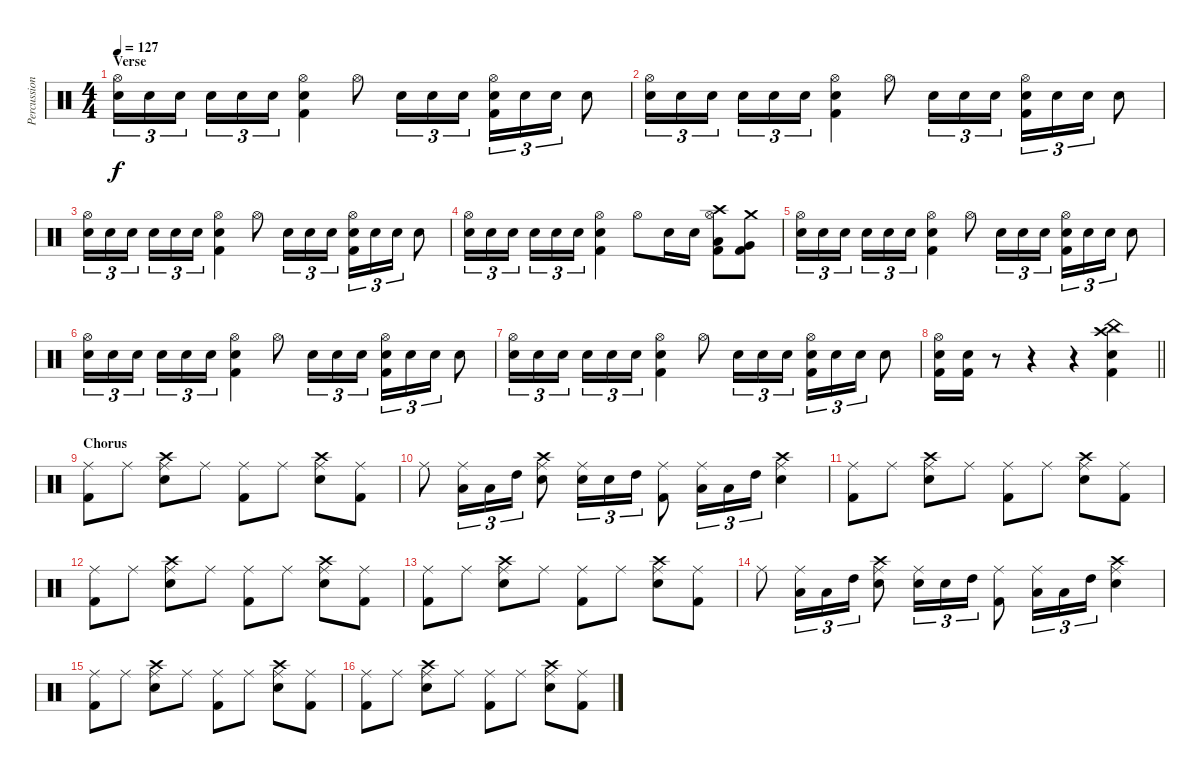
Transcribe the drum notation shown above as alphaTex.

\track ("Percussion" "Percussion") {instrument percussion}
\staff {score}
\articulation defaults
\ts (4 4)
\section ("" "Verse")
\tempo 127
\clef neutral
\ks c
("Hi-Hat (open)" "Snare (hit) 2").16{tu (3 2) dy f} "Snare (hit) 2".16{tu (3 2)} "Snare (hit) 2".16{tu (3 2) beam splitsecondary} "Snare (hit) 2".16{tu (3 2)} "Snare (hit) 2".16{tu (3 2)} "Snare (hit) 2".16{tu (3 2)} ("Hi-Hat (open)" "Snare (hit) 2" "Kick (hit) 2").4 "Hi-Hat (open)".8 "Snare (hit) 2".16{tu (3 2)} "Snare (hit) 2".16{tu (3 2)} "Snare (hit) 2".16{tu (3 2)} ("Hi-Hat (open)" "Snare (hit) 2" "Kick (hit) 2").16{tu (3 2)} "Snare (hit) 2".16{tu (3 2)} "Snare (hit) 2".16{tu (3 2)} "Snare (hit) 2".8 |
("Hi-Hat (open)" "Snare (hit) 2").16{tu (3 2)} "Snare (hit) 2".16{tu (3 2)} "Snare (hit) 2".16{tu (3 2) beam splitsecondary} "Snare (hit) 2".16{tu (3 2)} "Snare (hit) 2".16{tu (3 2)} "Snare (hit) 2".16{tu (3 2)} ("Hi-Hat (open)" "Snare (hit) 2" "Kick (hit) 2").4 "Hi-Hat (open)".8 "Snare (hit) 2".16{tu (3 2)} "Snare (hit) 2".16{tu (3 2)} "Snare (hit) 2".16{tu (3 2)} ("Hi-Hat (open)" "Snare (hit) 2" "Kick (hit) 2").16{tu (3 2)} "Snare (hit) 2".16{tu (3 2)} "Snare (hit) 2".16{tu (3 2)} "Snare (hit) 2".8 |
("Hi-Hat (open)" "Snare (hit) 2").16{tu (3 2)} "Snare (hit) 2".16{tu (3 2)} "Snare (hit) 2".16{tu (3 2) beam splitsecondary} "Snare (hit) 2".16{tu (3 2)} "Snare (hit) 2".16{tu (3 2)} "Snare (hit) 2".16{tu (3 2)} ("Hi-Hat (open)" "Snare (hit) 2" "Kick (hit) 2").4 "Hi-Hat (open)".8 "Snare (hit) 2".16{tu (3 2)} "Snare (hit) 2".16{tu (3 2)} "Snare (hit) 2".16{tu (3 2)} ("Hi-Hat (open)" "Snare (hit) 2" "Kick (hit) 2").16{tu (3 2)} "Snare (hit) 2".16{tu (3 2)} "Snare (hit) 2".16{tu (3 2)} "Snare (hit) 2".8 |
("Hi-Hat (open)" "Snare (hit) 2").16{tu (3 2)} "Snare (hit) 2".16{tu (3 2)} "Snare (hit) 2".16{tu (3 2) beam splitsecondary} "Snare (hit) 2".16{tu (3 2)} "Snare (hit) 2".16{tu (3 2)} "Snare (hit) 2".16{tu (3 2)} ("Hi-Hat (open)" "Snare (hit) 2" "Kick (hit) 2").4 "Hi-Hat (open)".8 "Snare (hit) 2".16 "Snare (hit) 2".16 ("Crash high (hit)" "Hi-Hat (open)" "Low Tom (hit)" "Kick (hit) 2").8 ("Crash medium (hit)" "Very Low Tom (hit)" "Kick (hit) 2").8 |
("Hi-Hat (open)" "Snare (hit) 2").16{tu (3 2)} "Snare (hit) 2".16{tu (3 2)} "Snare (hit) 2".16{tu (3 2) beam splitsecondary} "Snare (hit) 2".16{tu (3 2)} "Snare (hit) 2".16{tu (3 2)} "Snare (hit) 2".16{tu (3 2)} ("Hi-Hat (open)" "Snare (hit) 2" "Kick (hit) 2").4 "Hi-Hat (open)".8 "Snare (hit) 2".16{tu (3 2)} "Snare (hit) 2".16{tu (3 2)} "Snare (hit) 2".16{tu (3 2)} ("Hi-Hat (open)" "Snare (hit) 2" "Kick (hit) 2").16{tu (3 2)} "Snare (hit) 2".16{tu (3 2)} "Snare (hit) 2".16{tu (3 2)} "Snare (hit) 2".8 |
("Hi-Hat (open)" "Snare (hit) 2").16{tu (3 2)} "Snare (hit) 2".16{tu (3 2)} "Snare (hit) 2".16{tu (3 2) beam splitsecondary} "Snare (hit) 2".16{tu (3 2)} "Snare (hit) 2".16{tu (3 2)} "Snare (hit) 2".16{tu (3 2)} ("Hi-Hat (open)" "Snare (hit) 2" "Kick (hit) 2").4 "Hi-Hat (open)".8 "Snare (hit) 2".16{tu (3 2)} "Snare (hit) 2".16{tu (3 2)} "Snare (hit) 2".16{tu (3 2)} ("Hi-Hat (open)" "Snare (hit) 2" "Kick (hit) 2").16{tu (3 2)} "Snare (hit) 2".16{tu (3 2)} "Snare (hit) 2".16{tu (3 2)} "Snare (hit) 2".8 |
("Hi-Hat (open)" "Snare (hit) 2").16{tu (3 2)} "Snare (hit) 2".16{tu (3 2)} "Snare (hit) 2".16{tu (3 2) beam splitsecondary} "Snare (hit) 2".16{tu (3 2)} "Snare (hit) 2".16{tu (3 2)} "Snare (hit) 2".16{tu (3 2)} ("Hi-Hat (open)" "Snare (hit) 2" "Kick (hit) 2").4 "Hi-Hat (open)".8 "Snare (hit) 2".16{tu (3 2)} "Snare (hit) 2".16{tu (3 2)} "Snare (hit) 2".16{tu (3 2)} ("Hi-Hat (open)" "Snare (hit) 2" "Kick (hit) 2").16{tu (3 2)} "Snare (hit) 2".16{tu (3 2)} "Snare (hit) 2".16{tu (3 2)} "Snare (hit) 2".8 |
\barLineRight lightlight
("Hi-Hat (open)" "Snare (hit) 2" "Kick (hit) 2").16 ("Snare (hit) 2" "Kick (hit) 2").16 r.8 r.4 r.4 ("Crash high (hit)" "China (hit)" "Snare (hit) 2" "Kick (hit) 2").4 |
\section ("" "Chorus")
("Ride (middle)" "Kick (hit) 2").8 "Ride (middle)".8 ("Crash high (hit)" "Ride (middle)" "Snare (hit) 2").8 "Ride (middle)".8 ("Ride (middle)" "Kick (hit) 2").8 "Ride (middle)".8 ("Crash high (hit)" "Ride (middle)" "Snare (hit) 2").8 ("Ride (middle)" "Kick (hit) 2").8 |
"Ride (middle)".8 ("Ride (middle)" "Low Tom (hit)").16{tu (3 2)} "Low Tom (hit)".16{tu (3 2)} "High Tom (hit)".16{tu (3 2)} ("Crash high (hit)" "Ride (middle)" "Snare (hit) 2").8 ("Ride (middle)" "Snare (hit) 2").16{tu (3 2)} "Snare (hit) 2".16{tu (3 2)} "High Tom (hit)".16{tu (3 2)} ("Ride (middle)" "Kick (hit) 2").8 ("Ride (middle)" "Low Tom (hit)").16{tu (3 2)} "Low Tom (hit)".16{tu (3 2)} "High Tom (hit)".16{tu (3 2)} ("Crash high (hit)" "Ride (middle)" "Snare (hit) 2").4 |
("Ride (middle)" "Kick (hit) 2").8 "Ride (middle)".8 ("Crash high (hit)" "Ride (middle)" "Snare (hit) 2").8 "Ride (middle)".8 ("Ride (middle)" "Kick (hit) 2").8 "Ride (middle)".8 ("Crash high (hit)" "Ride (middle)" "Snare (hit) 2").8 ("Ride (middle)" "Kick (hit) 2").8 |
("Ride (middle)" "Kick (hit) 2").8 "Ride (middle)".8 ("Crash high (hit)" "Ride (middle)" "Snare (hit) 2").8 "Ride (middle)".8 ("Ride (middle)" "Kick (hit) 2").8 "Ride (middle)".8 ("Crash high (hit)" "Ride (middle)" "Snare (hit) 2").8 ("Ride (middle)" "Kick (hit) 2").8 |
("Ride (middle)" "Kick (hit) 2").8 "Ride (middle)".8 ("Crash high (hit)" "Ride (middle)" "Snare (hit) 2").8 "Ride (middle)".8 ("Ride (middle)" "Kick (hit) 2").8 "Ride (middle)".8 ("Crash high (hit)" "Ride (middle)" "Snare (hit) 2").8 ("Ride (middle)" "Kick (hit) 2").8 |
"Ride (middle)".8 ("Ride (middle)" "Low Tom (hit)").16{tu (3 2)} "Low Tom (hit)".16{tu (3 2)} "High Tom (hit)".16{tu (3 2)} ("Crash high (hit)" "Ride (middle)" "Snare (hit) 2").8 ("Ride (middle)" "Snare (hit) 2").16{tu (3 2)} "Snare (hit) 2".16{tu (3 2)} "High Tom (hit)".16{tu (3 2)} ("Ride (middle)" "Kick (hit) 2").8 ("Ride (middle)" "Low Tom (hit)").16{tu (3 2)} "Low Tom (hit)".16{tu (3 2)} "High Tom (hit)".16{tu (3 2)} ("Crash high (hit)" "Ride (middle)" "Snare (hit) 2").4 |
("Ride (middle)" "Kick (hit) 2").8 "Ride (middle)".8 ("Crash high (hit)" "Ride (middle)" "Snare (hit) 2").8 "Ride (middle)".8 ("Ride (middle)" "Kick (hit) 2").8 "Ride (middle)".8 ("Crash high (hit)" "Ride (middle)" "Snare (hit) 2").8 ("Ride (middle)" "Kick (hit) 2").8 |
("Ride (middle)" "Kick (hit) 2").8 "Ride (middle)".8 ("Crash high (hit)" "Ride (middle)" "Snare (hit) 2").8 "Ride (middle)".8 ("Ride (middle)" "Kick (hit) 2").8 "Ride (middle)".8 ("Crash high (hit)" "Ride (middle)" "Snare (hit) 2").8 ("Ride (middle)" "Kick (hit) 2").8
